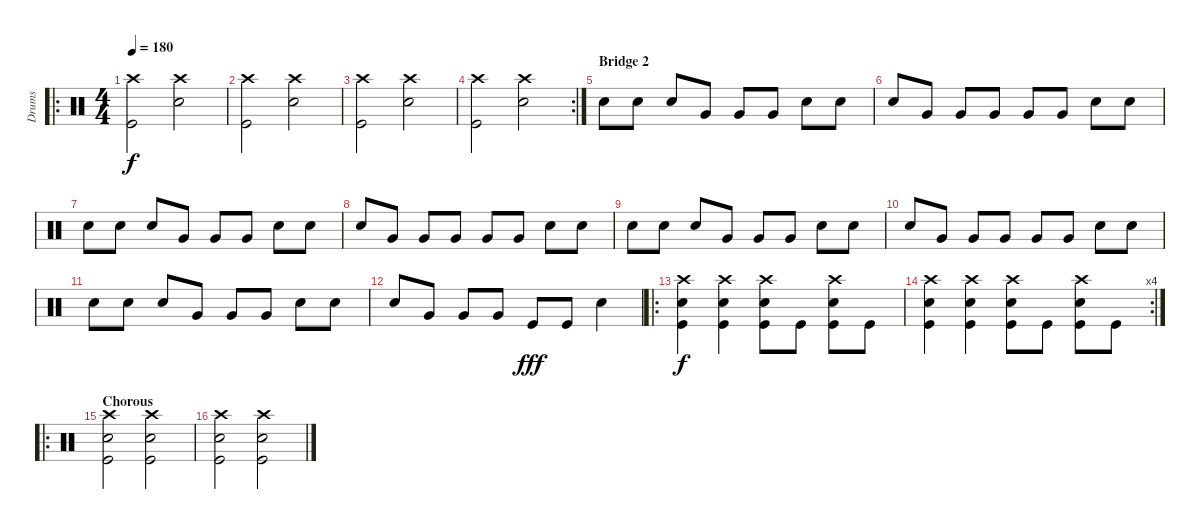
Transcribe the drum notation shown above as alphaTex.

\track ("Drums" "Drums") {instrument percussion}
\staff {score}
\articulation defaults
\ro
\ts (4 4)
\tempo 180
\clef neutral
\ks c
("Crash high (hit)" "Kick (hit)").2{dy f} ("Crash high (hit)" "Snare (hit) 2").2 |
("Crash high (hit)" "Kick (hit)").2 ("Crash high (hit)" "Snare (hit) 2").2 |
("Crash high (hit)" "Kick (hit)").2 ("Crash high (hit)" "Snare (hit) 2").2 |
\rc 2
("Crash high (hit)" "Kick (hit)").2 ("Crash high (hit)" "Snare (hit) 2").2 |
\section ("" "Bridge 2")
"Snare (hit) 2".8 "Snare (hit) 2".8 "Snare (hit) 2".8 "Very Low Tom (hit)".8 "Very Low Tom (hit)".8 "Very Low Tom (hit)".8 "Snare (hit) 2".8 "Snare (hit) 2".8 |
"Snare (hit) 2".8 "Very Low Tom (hit)".8 "Very Low Tom (hit)".8 "Very Low Tom (hit)".8 "Very Low Tom (hit)".8 "Very Low Tom (hit)".8 "Snare (hit) 2".8 "Snare (hit) 2".8 |
"Snare (hit) 2".8 "Snare (hit) 2".8 "Snare (hit) 2".8 "Very Low Tom (hit)".8 "Very Low Tom (hit)".8 "Very Low Tom (hit)".8 "Snare (hit) 2".8 "Snare (hit) 2".8 |
"Snare (hit) 2".8 "Very Low Tom (hit)".8 "Very Low Tom (hit)".8 "Very Low Tom (hit)".8 "Very Low Tom (hit)".8 "Very Low Tom (hit)".8 "Snare (hit) 2".8 "Snare (hit) 2".8 |
"Snare (hit) 2".8 "Snare (hit) 2".8 "Snare (hit) 2".8 "Very Low Tom (hit)".8 "Very Low Tom (hit)".8 "Very Low Tom (hit)".8 "Snare (hit) 2".8 "Snare (hit) 2".8 |
"Snare (hit) 2".8 "Very Low Tom (hit)".8 "Very Low Tom (hit)".8 "Very Low Tom (hit)".8 "Very Low Tom (hit)".8 "Very Low Tom (hit)".8 "Snare (hit) 2".8 "Snare (hit) 2".8 |
"Snare (hit) 2".8 "Snare (hit) 2".8 "Snare (hit) 2".8 "Very Low Tom (hit)".8 "Very Low Tom (hit)".8 "Very Low Tom (hit)".8 "Snare (hit) 2".8 "Snare (hit) 2".8 |
"Snare (hit) 2".8 "Very Low Tom (hit)".8 "Very Low Tom (hit)".8 "Very Low Tom (hit)".8 "Kick (hit)".8{dy fff} "Kick (hit)".8 "Snare (hit) 2".4 |
\ro
("Crash high (hit)" "Snare (hit) 2" "Kick (hit)").4{dy f} ("Crash high (hit)" "Snare (hit) 2" "Kick (hit)").4 ("Crash high (hit)" "Snare (hit) 2" "Kick (hit)").8 "Kick (hit)".8 ("Crash high (hit)" "Snare (hit) 2" "Kick (hit)").8 "Kick (hit)".8 |
\rc 4
("Crash high (hit)" "Snare (hit) 2" "Kick (hit)").4 ("Crash high (hit)" "Snare (hit) 2" "Kick (hit)").4 ("Crash high (hit)" "Snare (hit) 2" "Kick (hit)").8 "Kick (hit)".8 ("Crash high (hit)" "Snare (hit) 2" "Kick (hit)").8 "Kick (hit)".8 |
\ro
\section ("" "Chorous")
("Crash high (hit)" "Snare (hit) 2" "Kick (hit)").2 ("Crash high (hit)" "Snare (hit) 2" "Kick (hit)").2 |
("Crash high (hit)" "Snare (hit) 2" "Kick (hit)").2 ("Crash high (hit)" "Snare (hit) 2" "Kick (hit)").2
